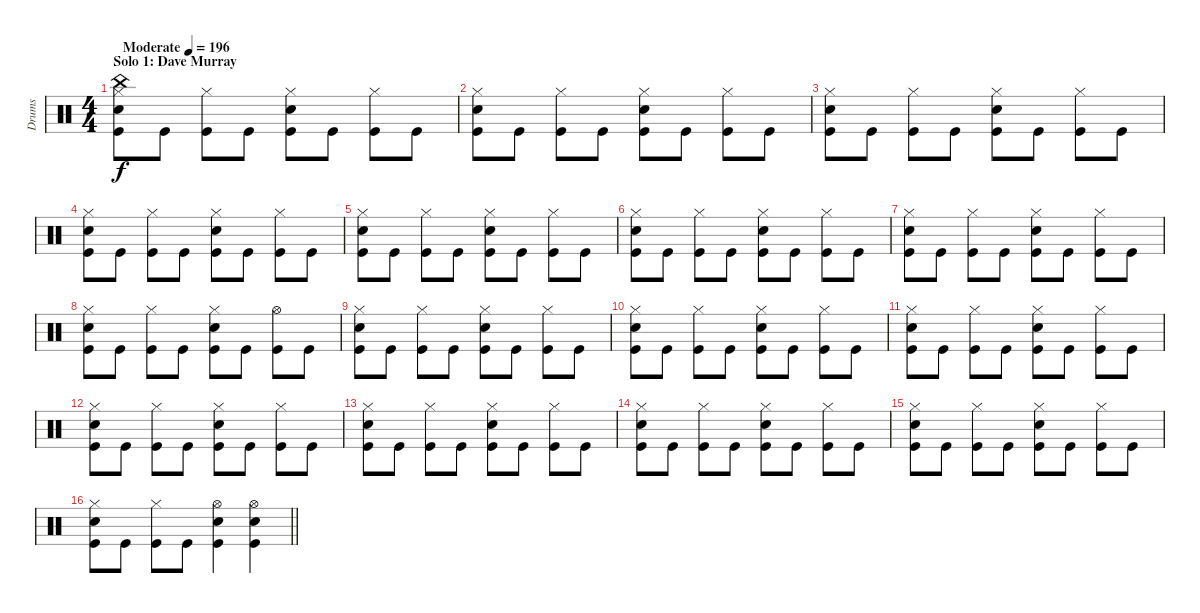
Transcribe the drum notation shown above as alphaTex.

\track ("Drums" "Drums") {instrument percussion}
\staff {score}
\articulation defaults
\ts (4 4)
\section ("" "Solo 1: Dave Murray")
\tempo (196 "Moderate")
\clef neutral
\ks aminor
("China (hit)" "Hi-Hat (closed)" "Snare (hit) 2" "Kick (hit)").8{dy f} "Kick (hit)".8 ("Hi-Hat (closed)" "Kick (hit)").8 "Kick (hit)".8 ("Hi-Hat (closed)" "Snare (hit) 2" "Kick (hit)").8 "Kick (hit)".8 ("Hi-Hat (closed)" "Kick (hit)").8 "Kick (hit)".8 |
("Hi-Hat (closed)" "Snare (hit) 2" "Kick (hit)").8 "Kick (hit)".8 ("Hi-Hat (closed)" "Kick (hit)").8 "Kick (hit)".8 ("Hi-Hat (closed)" "Snare (hit) 2" "Kick (hit)").8 "Kick (hit)".8 ("Hi-Hat (closed)" "Kick (hit)").8 "Kick (hit)".8 |
("Hi-Hat (closed)" "Snare (hit) 2" "Kick (hit)").8 "Kick (hit)".8 ("Hi-Hat (closed)" "Kick (hit)").8 "Kick (hit)".8 ("Hi-Hat (closed)" "Snare (hit) 2" "Kick (hit)").8 "Kick (hit)".8 ("Hi-Hat (closed)" "Kick (hit)").8 "Kick (hit)".8 |
("Hi-Hat (closed)" "Snare (hit) 2" "Kick (hit)").8 "Kick (hit)".8 ("Hi-Hat (closed)" "Kick (hit)").8 "Kick (hit)".8 ("Hi-Hat (closed)" "Snare (hit) 2" "Kick (hit)").8 "Kick (hit)".8 ("Hi-Hat (closed)" "Kick (hit)").8 "Kick (hit)".8 |
("Hi-Hat (closed)" "Snare (hit) 2" "Kick (hit)").8 "Kick (hit)".8 ("Hi-Hat (closed)" "Kick (hit)").8 "Kick (hit)".8 ("Hi-Hat (closed)" "Snare (hit) 2" "Kick (hit)").8 "Kick (hit)".8 ("Hi-Hat (closed)" "Kick (hit)").8 "Kick (hit)".8 |
("Hi-Hat (closed)" "Snare (hit) 2" "Kick (hit)").8 "Kick (hit)".8 ("Hi-Hat (closed)" "Kick (hit)").8 "Kick (hit)".8 ("Hi-Hat (closed)" "Snare (hit) 2" "Kick (hit)").8 "Kick (hit)".8 ("Hi-Hat (closed)" "Kick (hit)").8 "Kick (hit)".8 |
("Hi-Hat (closed)" "Snare (hit) 2" "Kick (hit)").8 "Kick (hit)".8 ("Hi-Hat (closed)" "Kick (hit)").8 "Kick (hit)".8 ("Hi-Hat (closed)" "Snare (hit) 2" "Kick (hit)").8 "Kick (hit)".8 ("Hi-Hat (closed)" "Kick (hit)").8 "Kick (hit)".8 |
("Hi-Hat (closed)" "Snare (hit) 2" "Kick (hit)").8 "Kick (hit)".8 ("Hi-Hat (closed)" "Kick (hit)").8 "Kick (hit)".8 ("Hi-Hat (closed)" "Snare (hit) 2" "Kick (hit)").8 "Kick (hit)".8 ("Hi-Hat (open)" "Kick (hit)").8 "Kick (hit)".8 |
("Hi-Hat (closed)" "Snare (hit) 2" "Kick (hit)").8 "Kick (hit)".8 ("Hi-Hat (closed)" "Kick (hit)").8 "Kick (hit)".8 ("Hi-Hat (closed)" "Snare (hit) 2" "Kick (hit)").8 "Kick (hit)".8 ("Hi-Hat (closed)" "Kick (hit)").8 "Kick (hit)".8 |
("Hi-Hat (closed)" "Snare (hit) 2" "Kick (hit)").8 "Kick (hit)".8 ("Hi-Hat (closed)" "Kick (hit)").8 "Kick (hit)".8 ("Hi-Hat (closed)" "Snare (hit) 2" "Kick (hit)").8 "Kick (hit)".8 ("Hi-Hat (closed)" "Kick (hit)").8 "Kick (hit)".8 |
("Hi-Hat (closed)" "Snare (hit) 2" "Kick (hit)").8 "Kick (hit)".8 ("Hi-Hat (closed)" "Kick (hit)").8 "Kick (hit)".8 ("Hi-Hat (closed)" "Snare (hit) 2" "Kick (hit)").8 "Kick (hit)".8 ("Hi-Hat (closed)" "Kick (hit)").8 "Kick (hit)".8 |
("Hi-Hat (closed)" "Snare (hit) 2" "Kick (hit)").8 "Kick (hit)".8 ("Hi-Hat (closed)" "Kick (hit)").8 "Kick (hit)".8 ("Hi-Hat (closed)" "Snare (hit) 2" "Kick (hit)").8 "Kick (hit)".8 ("Hi-Hat (closed)" "Kick (hit)").8 "Kick (hit)".8 |
("Hi-Hat (closed)" "Snare (hit) 2" "Kick (hit)").8 "Kick (hit)".8 ("Hi-Hat (closed)" "Kick (hit)").8 "Kick (hit)".8 ("Hi-Hat (closed)" "Snare (hit) 2" "Kick (hit)").8 "Kick (hit)".8 ("Hi-Hat (closed)" "Kick (hit)").8 "Kick (hit)".8 |
("Hi-Hat (closed)" "Snare (hit) 2" "Kick (hit)").8 "Kick (hit)".8 ("Hi-Hat (closed)" "Kick (hit)").8 "Kick (hit)".8 ("Hi-Hat (closed)" "Snare (hit) 2" "Kick (hit)").8 "Kick (hit)".8 ("Hi-Hat (closed)" "Kick (hit)").8 "Kick (hit)".8 |
("Hi-Hat (closed)" "Snare (hit) 2" "Kick (hit)").8 "Kick (hit)".8 ("Hi-Hat (closed)" "Kick (hit)").8 "Kick (hit)".8 ("Hi-Hat (closed)" "Snare (hit) 2" "Kick (hit)").8 "Kick (hit)".8 ("Hi-Hat (closed)" "Kick (hit)").8 "Kick (hit)".8 |
\barLineRight lightlight
("Hi-Hat (closed)" "Snare (hit) 2" "Kick (hit)").8 "Kick (hit)".8 ("Hi-Hat (closed)" "Kick (hit)").8 "Kick (hit)".8 ("Hi-Hat (open)" "Snare (hit) 2" "Kick (hit)").4 ("Hi-Hat (open)" "Snare (hit) 2" "Kick (hit)").4
